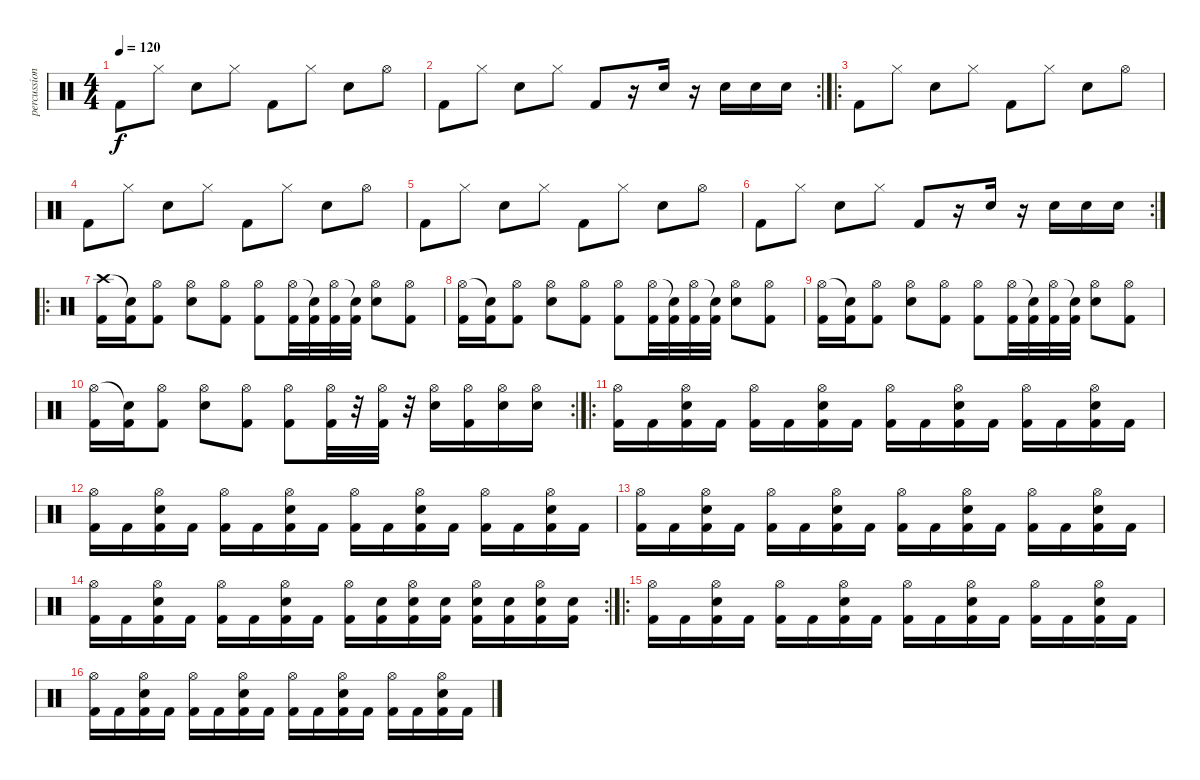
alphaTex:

\track ("percussions" "percussion") {instrument percussion}
\staff {score}
\articulation defaults
\ts (4 4)
\tempo 120
\clef neutral
\ks c "Kick (hit) 2".8{dy f} "Hi-Hat (closed)".8 "Electric Snare (hit)".8 "Hi-Hat (closed)".8 "Kick (hit) 2".8 "Hi-Hat (closed)".8 "Electric Snare (hit)".8 "Hi-Hat (open)".8
|
\rc 2 "Kick (hit) 2".8 "Hi-Hat (closed)".8 "Electric Snare (hit)".8 "Hi-Hat (closed)".8 "Kick (hit) 2".8
r.16 "Electric Snare (hit)".16 r.16 "Electric Snare (hit)".16 "Electric Snare (hit)".16 "Electric Snare (hit)".16 |
\ro "Kick (hit) 2".8 "Hi-Hat (closed)".8 "Electric Snare (hit)".8 "Hi-Hat (closed)".8 "Kick (hit) 2".8 "Hi-Hat (closed)".8 "Electric Snare (hit)".8 "Hi-Hat (open)".8
|
"Kick (hit) 2".8 "Hi-Hat (closed)".8 "Electric Snare (hit)".8 "Hi-Hat (closed)".8 "Kick (hit) 2".8 "Hi-Hat (closed)".8 "Electric Snare (hit)".8 "Hi-Hat (open)".8 |
"Kick (hit) 2".8 "Hi-Hat (closed)".8 "Electric Snare (hit)".8 "Hi-Hat (closed)".8 "Kick (hit) 2".8 "Hi-Hat (closed)".8 "Electric Snare (hit)".8 "Hi-Hat (open)".8 |
\rc 2 "Kick (hit) 2".8 "Hi-Hat (closed)".8 "Electric Snare (hit)".8 "Hi-Hat (closed)".8 "Kick (hit) 2".8
r.16 "Electric Snare (hit)".16 r.16 "Electric Snare (hit)".16 "Electric Snare (hit)".16 "Electric Snare (hit)".16 |
\ro
("Crash high (hit)" "Kick (hit) 2").16 ("Snare (hit)"{t} "Kick (hit) 2").16 ("Hi-Hat (open)" "Kick (hit) 2").8 ("Hi-Hat (open)" "Electric Snare (hit)").8 ("Hi-Hat (open)" "Kick (hit) 2").8 ("Hi-Hat (open)" "Kick (hit) 2").8 ("Hi-Hat (open)" "Kick (hit) 2").32 ("Snare (hit)"{t} "Kick (hit) 2").32 ("Hi-Hat (open)" "Kick (hit) 2").32 ("Snare (hit)"{t} "Kick (hit) 2").32 ("Hi-Hat (open)" "Electric Snare (hit)").8 ("Hi-Hat (open)" "Kick (hit) 2").8 |
("Hi-Hat (open)" "Kick (hit) 2").16 ("Snare (hit)"{t} "Kick (hit) 2").16 ("Hi-Hat (open)" "Kick (hit) 2").8 ("Hi-Hat (open)" "Electric Snare (hit)").8 ("Hi-Hat (open)" "Kick (hit) 2").8 ("Hi-Hat (open)" "Kick (hit) 2").8 ("Hi-Hat (open)" "Kick (hit) 2").32 ("Snare (hit)"{t} "Kick (hit) 2").32 ("Hi-Hat (open)" "Kick (hit) 2").32 ("Snare (hit)"{t} "Kick (hit) 2").32 ("Hi-Hat (open)" "Electric Snare (hit)").8 ("Hi-Hat (open)" "Kick (hit) 2").8 |
("Hi-Hat (open)" "Kick (hit) 2").16 ("Snare (hit)"{t} "Kick (hit) 2").16 ("Hi-Hat (open)" "Kick (hit) 2").8 ("Hi-Hat (open)" "Electric Snare (hit)").8 ("Hi-Hat (open)" "Kick (hit) 2").8 ("Hi-Hat (open)" "Kick (hit) 2").8 ("Hi-Hat (open)" "Kick (hit) 2").32 ("Snare (hit)"{t} "Kick (hit) 2").32 ("Hi-Hat (open)" "Kick (hit) 2").32 ("Snare (hit)"{t} "Kick (hit) 2").32 ("Hi-Hat (open)" "Electric Snare (hit)").8 ("Hi-Hat (open)" "Kick (hit) 2").8 |
\rc 2
("Hi-Hat (open)" "Kick (hit) 2").16 ("Snare (hit)"{t} "Kick (hit) 2").16 ("Hi-Hat (open)" "Kick (hit) 2").8 ("Hi-Hat (open)" "Electric Snare (hit)").8 ("Hi-Hat (open)" "Kick (hit) 2").8 ("Hi-Hat (open)" "Kick (hit) 2").8 ("Hi-Hat (open)" "Kick (hit) 2").32 r.32 ("Hi-Hat (open)" "Kick (hit) 2").32 r.32 ("Hi-Hat (open)" "Electric Snare (hit)").16 ("Hi-Hat (open)" "Kick (hit) 2").16 ("Hi-Hat (open)" "Electric Snare (hit)").16 ("Hi-Hat (open)" "Electric Snare (hit)").16 |
\ro
("Hi-Hat (open)" "Kick (hit) 2").16 "Kick (hit) 2".16 ("Hi-Hat (open)" "Electric Snare (hit)" "Kick (hit) 2").16 "Kick (hit) 2".16 ("Hi-Hat (open)" "Kick (hit) 2").16 "Kick (hit) 2".16 ("Hi-Hat (open)" "Electric Snare (hit)" "Kick (hit) 2").16 "Kick (hit) 2".16 ("Hi-Hat (open)" "Kick (hit) 2").16 "Kick (hit) 2".16 ("Hi-Hat (open)" "Electric Snare (hit)" "Kick (hit) 2").16 "Kick (hit) 2".16 ("Hi-Hat (open)" "Kick (hit) 2").16 "Kick (hit) 2".16 ("Hi-Hat (open)" "Electric Snare (hit)" "Kick (hit) 2").16 "Kick (hit) 2".16 |
("Hi-Hat (open)" "Kick (hit) 2").16 "Kick (hit) 2".16 ("Hi-Hat (open)" "Electric Snare (hit)" "Kick (hit) 2").16 "Kick (hit) 2".16 ("Hi-Hat (open)" "Kick (hit) 2").16 "Kick (hit) 2".16 ("Hi-Hat (open)" "Electric Snare (hit)" "Kick (hit) 2").16 "Kick (hit) 2".16 ("Hi-Hat (open)" "Kick (hit) 2").16 "Kick (hit) 2".16 ("Hi-Hat (open)" "Electric Snare (hit)" "Kick (hit) 2").16 "Kick (hit) 2".16 ("Hi-Hat (open)" "Kick (hit) 2").16 "Kick (hit) 2".16 ("Hi-Hat (open)" "Electric Snare (hit)" "Kick (hit) 2").16 "Kick (hit) 2".16 |
("Hi-Hat (open)" "Kick (hit) 2").16 "Kick (hit) 2".16 ("Hi-Hat (open)" "Electric Snare (hit)" "Kick (hit) 2").16 "Kick (hit) 2".16 ("Hi-Hat (open)" "Kick (hit) 2").16 "Kick (hit) 2".16 ("Hi-Hat (open)" "Electric Snare (hit)" "Kick (hit) 2").16 "Kick (hit) 2".16 ("Hi-Hat (open)" "Kick (hit) 2").16 "Kick (hit) 2".16 ("Hi-Hat (open)" "Electric Snare (hit)" "Kick (hit) 2").16 "Kick (hit) 2".16 ("Hi-Hat (open)" "Kick (hit) 2").16 "Kick (hit) 2".16 ("Hi-Hat (open)" "Electric Snare (hit)" "Kick (hit) 2").16 "Kick (hit) 2".16 |
\rc 2
("Hi-Hat (open)" "Kick (hit) 2").16 "Kick (hit) 2".16 ("Hi-Hat (open)" "Electric Snare (hit)" "Kick (hit) 2").16 "Kick (hit) 2".16 ("Hi-Hat (open)" "Kick (hit) 2").16 "Kick (hit) 2".16 ("Hi-Hat (open)" "Electric Snare (hit)" "Kick (hit) 2").16 "Kick (hit) 2".16 ("Hi-Hat (open)" "Kick (hit) 2").16 ("Electric Snare (hit)" "Kick (hit) 2").16 ("Hi-Hat (open)" "Electric Snare (hit)" "Kick (hit) 2").16 ("Electric Snare (hit)" "Kick (hit) 2").16 ("Hi-Hat (open)" "Electric Snare (hit)" "Kick (hit) 2").16 ("Electric Snare (hit)" "Kick (hit) 2").16 ("Hi-Hat (open)" "Electric Snare (hit)" "Kick (hit) 2").16 ("Electric Snare (hit)" "Kick (hit) 2").16 |
\ro
("Hi-Hat (open)" "Kick (hit) 2").16 "Kick (hit) 2".16 ("Hi-Hat (open)" "Electric Snare (hit)" "Kick (hit) 2").16 "Kick (hit) 2".16 ("Hi-Hat (open)" "Kick (hit) 2").16 "Kick (hit) 2".16 ("Hi-Hat (open)" "Electric Snare (hit)" "Kick (hit) 2").16 "Kick (hit) 2".16 ("Hi-Hat (open)" "Kick (hit) 2").16 "Kick (hit) 2".16 ("Hi-Hat (open)" "Electric Snare (hit)" "Kick (hit) 2").16 "Kick (hit) 2".16 ("Hi-Hat (open)" "Kick (hit) 2").16 "Kick (hit) 2".16 ("Hi-Hat (open)" "Electric Snare (hit)" "Kick (hit) 2").16 "Kick (hit) 2".16 |
("Hi-Hat (open)" "Kick (hit) 2").16 "Kick (hit) 2".16 ("Hi-Hat (open)" "Electric Snare (hit)" "Kick (hit) 2").16 "Kick (hit) 2".16 ("Hi-Hat (open)" "Kick (hit) 2").16 "Kick (hit) 2".16 ("Hi-Hat (open)" "Electric Snare (hit)" "Kick (hit) 2").16 "Kick (hit) 2".16 ("Hi-Hat (open)" "Kick (hit) 2").16 "Kick (hit) 2".16 ("Hi-Hat (open)" "Electric Snare (hit)" "Kick (hit) 2").16 "Kick (hit) 2".16 ("Hi-Hat (open)" "Kick (hit) 2").16 "Kick (hit) 2".16 ("Hi-Hat (open)" "Electric Snare (hit)" "Kick (hit) 2").16 "Kick (hit) 2".16
